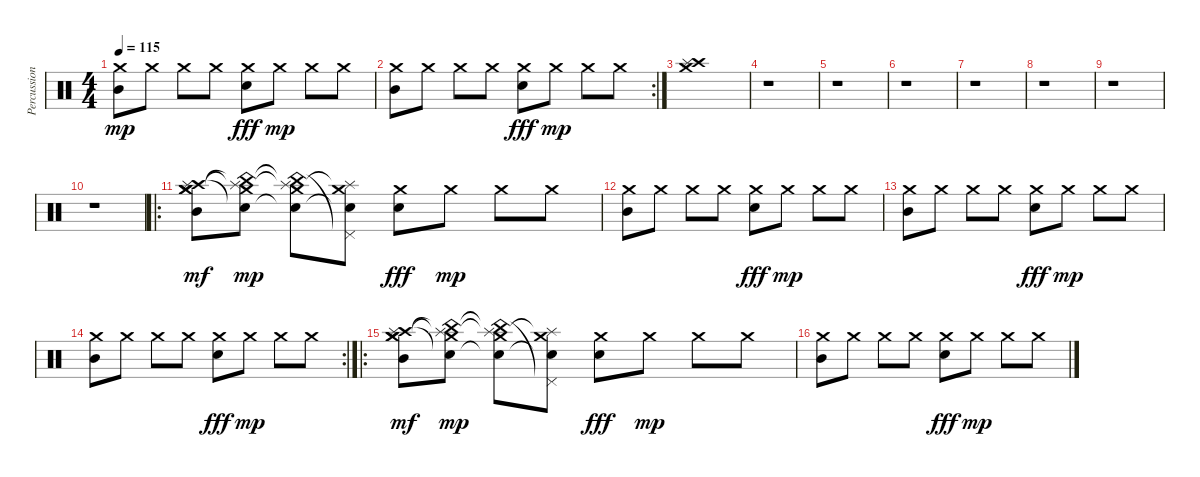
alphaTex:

\track ("Percussion" "Percussion") {instrument percussion}
\staff {score}
\articulation defaults
\ts (4 4)
\tempo 115
\clef neutral
\ks c
("Crash medium (hit)" "Mid Tom (hit)").8{dy mp} "Crash medium (hit)".8 "Crash medium (hit)".8 "Crash medium (hit)".8 ("Crash medium (hit)" "Electric Snare (hit)").8{dy fff} "Crash medium (hit)".8{dy mp} "Crash medium (hit)".8 "Crash medium (hit)".8 |
\rc 2
("Crash medium (hit)" "Mid Tom (hit)").8 "Crash medium (hit)".8 "Crash medium (hit)".8 "Crash medium (hit)".8 ("Crash medium (hit)" "Electric Snare (hit)").8{dy fff} "Crash medium (hit)".8{dy mp} "Crash medium (hit)".8 "Crash medium (hit)".8 |
("Crash medium (hit)" "Crash high (hit)" "Splash (hit)").1 |
r.1 |
r.1 |
r.1 |
r.1 |
r.1 |
r.1 |
r.1 |
\ro
("Crash medium (hit)" "Crash high (hit)" "Crash medium (hit)" "Splash (hit)" "Mid Tom (hit)").8{dy mf} ("China (hit)"{t} "Snare (hit)"{t} "Crash medium (hit)" "Splash (hit)"{t}).8{dy mp} ("China (hit)"{t} "Snare (hit)"{t} "Crash medium (hit)" "Splash (hit)"{t}).8 ("Pedal Hi-Hat (hit)"{t} "Snare (hit)"{t} "Crash medium (hit)" "Splash (hit)"{t}).8 ("Crash medium (hit)" "Electric Snare (hit)").8{dy fff} "Crash medium (hit)".8{dy mp} "Crash medium (hit)".8 "Crash medium (hit)".8 |
("Crash medium (hit)" "Mid Tom (hit)").8 "Crash medium (hit)".8 "Crash medium (hit)".8 "Crash medium (hit)".8 ("Crash medium (hit)" "Electric Snare (hit)").8{dy fff} "Crash medium (hit)".8{dy mp} "Crash medium (hit)".8 "Crash medium (hit)".8 |
("Crash medium (hit)" "Mid Tom (hit)").8 "Crash medium (hit)".8 "Crash medium (hit)".8 "Crash medium (hit)".8 ("Crash medium (hit)" "Electric Snare (hit)").8{dy fff} "Crash medium (hit)".8{dy mp} "Crash medium (hit)".8 "Crash medium (hit)".8 |
\rc 2
("Crash medium (hit)" "Mid Tom (hit)").8 "Crash medium (hit)".8 "Crash medium (hit)".8 "Crash medium (hit)".8 ("Crash medium (hit)" "Electric Snare (hit)").8{dy fff} "Crash medium (hit)".8{dy mp} "Crash medium (hit)".8 "Crash medium (hit)".8 |
\ro
("Crash medium (hit)" "Crash high (hit)" "Crash medium (hit)" "Splash (hit)" "Mid Tom (hit)").8{dy mf} ("China (hit)"{t} "Snare (hit)"{t} "Crash medium (hit)" "Splash (hit)"{t}).8{dy mp} ("China (hit)"{t} "Snare (hit)"{t} "Crash medium (hit)" "Splash (hit)"{t}).8 ("Pedal Hi-Hat (hit)"{t} "Snare (hit)"{t} "Crash medium (hit)" "Splash (hit)"{t}).8 ("Crash medium (hit)" "Electric Snare (hit)").8{dy fff} "Crash medium (hit)".8{dy mp} "Crash medium (hit)".8 "Crash medium (hit)".8 |
("Crash medium (hit)" "Mid Tom (hit)").8 "Crash medium (hit)".8 "Crash medium (hit)".8 "Crash medium (hit)".8 ("Crash medium (hit)" "Electric Snare (hit)").8{dy fff} "Crash medium (hit)".8{dy mp} "Crash medium (hit)".8 "Crash medium (hit)".8
